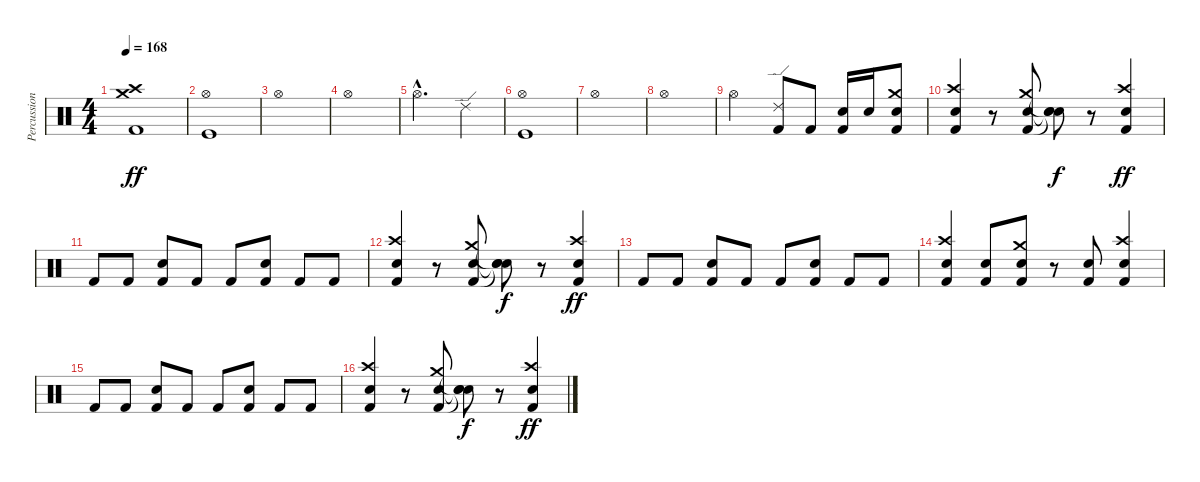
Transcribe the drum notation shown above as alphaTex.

\track ("Percussions" "Percussion") {instrument percussion}
\staff {score}
\articulation defaults
\ts (4 4)
\tempo 168
\clef neutral
\ks c
("Kick (hit) 2" "Crash medium (hit)" "Crash high (hit)").1{dy ff} |
("Kick (hit)" "Hi-Hat (open)").1 |
"Hi-Hat (open)".1 |
"Hi-Hat (open)".1 |
"Hi-Hat (open)"{hac}.2{d} "Ride (edge) 2".4 |
("Kick (hit)" "Hi-Hat (open)").1 |
"Hi-Hat (open)".1 |
"Hi-Hat (open)".1 |
"Hi-Hat (open)".2 ("Kick (hit) 2" "Ride (edge) 2").8 "Kick (hit) 2".8 ("Kick (hit) 2" "Snare (hit) 2").16 "Snare (hit) 2".16 ("Kick (hit) 2" "Snare (hit) 2" "Crash medium (hit)").8 |
("Kick (hit) 2" "Snare (hit) 2" "Crash high (hit)").4 r.8 ("Kick (hit) 2" "Snare (hit) 2" "Crash medium (hit)").8 ("Snare (hit)"{t} "Snare (hit)"{t} "Snare (hit)"{t}).8{dy f} r.8 ("Kick (hit) 2" "Snare (hit) 2" "Crash high (hit)").4{dy ff} |
"Kick (hit) 2".8 "Kick (hit) 2".8 ("Kick (hit) 2" "Snare (hit) 2").8 "Kick (hit) 2".8 "Kick (hit) 2".8 ("Kick (hit) 2" "Snare (hit) 2").8 "Kick (hit) 2".8 "Kick (hit) 2".8 |
("Kick (hit) 2" "Snare (hit) 2" "Crash high (hit)").4 r.8 ("Kick (hit) 2" "Snare (hit) 2" "Crash medium (hit)").8 ("Snare (hit)"{t} "Snare (hit)"{t} "Snare (hit)"{t}).8{dy f} r.8 ("Kick (hit) 2" "Snare (hit) 2" "Crash high (hit)").4{dy ff} |
"Kick (hit) 2".8 "Kick (hit) 2".8 ("Kick (hit) 2" "Snare (hit) 2").8 "Kick (hit) 2".8 "Kick (hit) 2".8 ("Kick (hit) 2" "Snare (hit) 2").8 "Kick (hit) 2".8 "Kick (hit) 2".8 |
("Kick (hit) 2" "Snare (hit) 2" "Crash high (hit)").4 ("Kick (hit) 2" "Snare (hit) 2").8 ("Kick (hit) 2" "Snare (hit) 2" "Crash medium (hit)").8 r.8 ("Kick (hit) 2" "Snare (hit) 2").8 ("Kick (hit) 2" "Snare (hit) 2" "Crash high (hit)").4 |
"Kick (hit) 2".8 "Kick (hit) 2".8 ("Kick (hit) 2" "Snare (hit) 2").8 "Kick (hit) 2".8 "Kick (hit) 2".8 ("Kick (hit) 2" "Snare (hit) 2").8 "Kick (hit) 2".8 "Kick (hit) 2".8 |
("Kick (hit) 2" "Snare (hit) 2" "Crash high (hit)").4 r.8 ("Kick (hit) 2" "Snare (hit) 2" "Crash medium (hit)").8 ("Snare (hit)"{t} "Snare (hit)"{t} "Snare (hit)"{t}).8{dy f} r.8 ("Kick (hit) 2" "Snare (hit) 2" "Crash high (hit)").4{dy ff}
